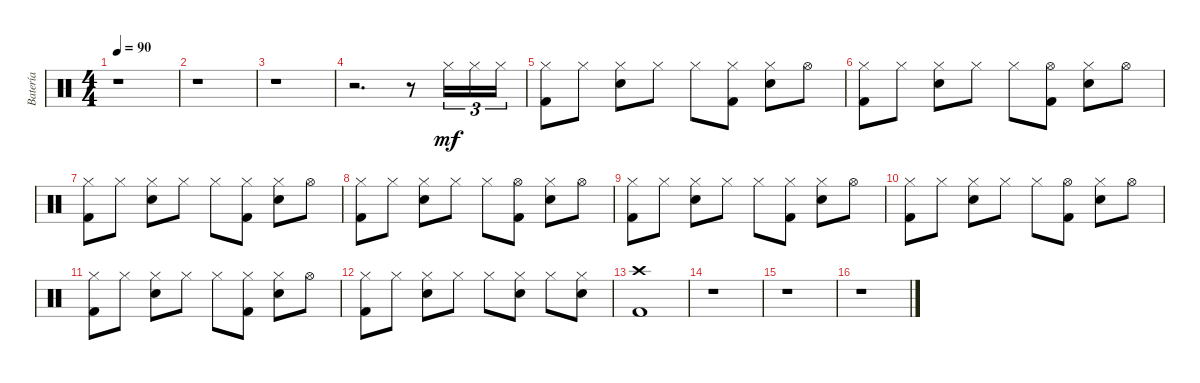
\track ("Batería" "Batería") {instrument percussion}
\staff {score}
\articulation defaults
\ts (4 4)
\tempo 90
\clef neutral
\ks c
r.1{dy mf} |
r.1 |
r.1 |
r.2{d} r.8 "Hi-Hat (closed)".16{tu (3 2)} "Hi-Hat (closed)".16{tu (3 2)} "Hi-Hat (closed)".16{tu (3 2)} |
("Hi-Hat (closed)" "Kick (hit) 2").8 "Hi-Hat (closed)".8 ("Hi-Hat (closed)" "Snare (hit) 2").8 "Hi-Hat (closed)".8 "Hi-Hat (closed)".8 ("Hi-Hat (closed)" "Kick (hit) 2").8 ("Hi-Hat (closed)" "Snare (hit) 2").8 "Hi-Hat (open)".8 |
("Hi-Hat (closed)" "Kick (hit) 2").8 "Hi-Hat (closed)".8 ("Hi-Hat (closed)" "Snare (hit) 2").8 "Hi-Hat (closed)".8 "Hi-Hat (closed)".8 ("Hi-Hat (open)" "Kick (hit) 2").8 ("Hi-Hat (closed)" "Snare (hit) 2").8 "Hi-Hat (open)".8 |
("Hi-Hat (closed)" "Kick (hit) 2").8 "Hi-Hat (closed)".8 ("Hi-Hat (closed)" "Snare (hit) 2").8 "Hi-Hat (closed)".8 "Hi-Hat (closed)".8 ("Hi-Hat (closed)" "Kick (hit) 2").8 ("Hi-Hat (closed)" "Snare (hit) 2").8 "Hi-Hat (open)".8 |
("Hi-Hat (closed)" "Kick (hit) 2").8 "Hi-Hat (closed)".8 ("Hi-Hat (closed)" "Snare (hit) 2").8 "Hi-Hat (closed)".8 "Hi-Hat (closed)".8 ("Hi-Hat (open)" "Kick (hit) 2").8 ("Hi-Hat (closed)" "Snare (hit) 2").8 "Hi-Hat (open)".8 |
("Hi-Hat (closed)" "Kick (hit) 2").8 "Hi-Hat (closed)".8 ("Hi-Hat (closed)" "Snare (hit) 2").8 "Hi-Hat (closed)".8 "Hi-Hat (closed)".8 ("Hi-Hat (closed)" "Kick (hit) 2").8 ("Hi-Hat (closed)" "Snare (hit) 2").8 "Hi-Hat (open)".8 |
("Hi-Hat (closed)" "Kick (hit) 2").8 "Hi-Hat (closed)".8 ("Hi-Hat (closed)" "Snare (hit) 2").8 "Hi-Hat (closed)".8 "Hi-Hat (closed)".8 ("Hi-Hat (open)" "Kick (hit) 2").8 ("Hi-Hat (closed)" "Snare (hit) 2").8 "Hi-Hat (open)".8 |
("Hi-Hat (closed)" "Kick (hit) 2").8 "Hi-Hat (closed)".8 ("Hi-Hat (closed)" "Snare (hit) 2").8 "Hi-Hat (closed)".8 "Hi-Hat (closed)".8 ("Hi-Hat (closed)" "Kick (hit) 2").8 ("Hi-Hat (closed)" "Snare (hit) 2").8 "Hi-Hat (open)".8 |
("Hi-Hat (closed)" "Kick (hit) 2").8 "Hi-Hat (closed)".8 ("Hi-Hat (closed)" "Snare (hit) 2").8 "Hi-Hat (closed)".8 "Hi-Hat (closed)".8 ("Hi-Hat (closed)" "Snare (hit) 2").8 "Hi-Hat (closed)".8 ("Hi-Hat (closed)" "Snare (hit) 2").8 |
("Crash high (hit)" "Kick (hit) 2").1 |
r.1 |
r.1 |
r.1
